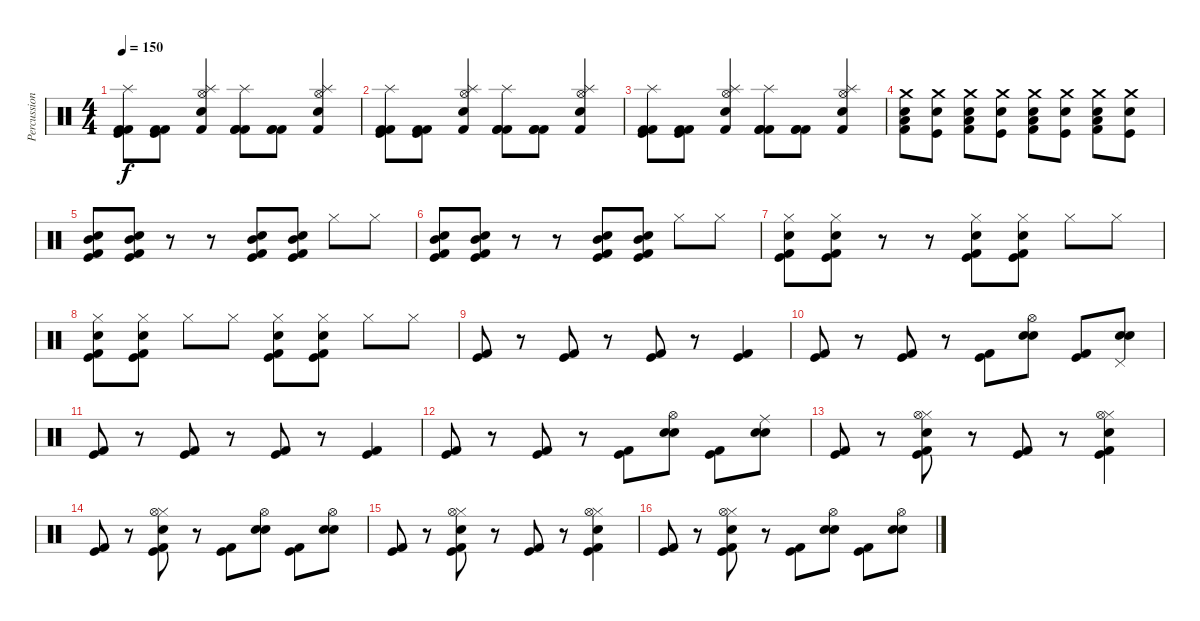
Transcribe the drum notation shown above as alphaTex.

\track ("Percussion" "Percussion") {instrument percussion}
\staff {score}
\articulation defaults
\ts (4 4)
\tempo 150
\clef neutral
\ks c
("Kick (hit) 2" "Kick (hit)" "Kick (hit) 2" "Splash (hit)").8{dy f} ("Kick (hit) 2" "Kick (hit)" "Kick (hit) 2").8 ("Hi-Hat (open)" "Snare (hit) 2" "Kick (hit) 2" "Splash (hit)").4 ("Kick (hit) 2" "Kick (hit) 2" "Kick (hit) 2" "Splash (hit)").8 ("Kick (hit) 2" "Kick (hit) 2" "Kick (hit) 2").8 ("Hi-Hat (open)" "Snare (hit) 2" "Kick (hit) 2" "Splash (hit)").4 |
("Kick (hit) 2" "Kick (hit)" "Kick (hit) 2" "Splash (hit)").8 ("Kick (hit) 2" "Kick (hit)" "Kick (hit) 2").8 ("Hi-Hat (open)" "Snare (hit) 2" "Kick (hit) 2" "Splash (hit)").4 ("Kick (hit) 2" "Kick (hit) 2" "Kick (hit) 2" "Splash (hit)").8 ("Kick (hit) 2" "Kick (hit) 2" "Kick (hit) 2").8 ("Hi-Hat (open)" "Snare (hit) 2" "Kick (hit) 2" "Splash (hit)").4 |
("Kick (hit) 2" "Kick (hit)" "Kick (hit) 2" "Splash (hit)").8 ("Kick (hit) 2" "Kick (hit)" "Kick (hit) 2").8 ("Hi-Hat (open)" "Snare (hit) 2" "Kick (hit) 2" "Splash (hit)").4 ("Kick (hit) 2" "Kick (hit) 2" "Kick (hit) 2" "Splash (hit)").8 ("Kick (hit) 2" "Kick (hit) 2" "Kick (hit) 2").8 ("Hi-Hat (open)" "Snare (hit) 2" "Kick (hit) 2" "Splash (hit)").4 |
("Snare (hit) 2" "Low Tom (hit)" "Crash medium (hit)" "Kick (hit) 2").8 ("Snare (hit) 2" "Crash medium (hit)" "Kick (hit)").8 ("Snare (hit) 2" "Low Tom (hit)" "Crash medium (hit)" "Kick (hit) 2").8 ("Snare (hit) 2" "Crash medium (hit)" "Kick (hit)").8 ("Snare (hit) 2" "Low Tom (hit)" "Crash medium (hit)" "Kick (hit) 2").8 ("Snare (hit) 2" "Crash medium (hit)" "Kick (hit)").8 ("Snare (hit) 2" "Low Tom (hit)" "Crash medium (hit)" "Kick (hit) 2").8 ("Snare (hit) 2" "Crash medium (hit)" "Kick (hit)").8 |
("Snare (hit) 2" "Mid Tom (hit)" "Kick (hit)" "Kick (hit) 2").8 ("Snare (hit) 2" "Mid Tom (hit)" "Kick (hit)" "Kick (hit) 2").8 r.8 r.8 ("Snare (hit) 2" "Mid Tom (hit)" "Kick (hit)" "Kick (hit) 2").8 ("Snare (hit) 2" "Mid Tom (hit)" "Kick (hit)" "Kick (hit) 2").8 "Hi-Hat (closed)".8 "Hi-Hat (closed)".8 |
("Snare (hit) 2" "Mid Tom (hit)" "Kick (hit)" "Kick (hit) 2").8 ("Snare (hit) 2" "Mid Tom (hit)" "Kick (hit)" "Kick (hit) 2").8 r.8 r.8 ("Snare (hit) 2" "Mid Tom (hit)" "Kick (hit)" "Kick (hit) 2").8 ("Snare (hit) 2" "Mid Tom (hit)" "Kick (hit)" "Kick (hit) 2").8 "Hi-Hat (closed)".8 "Hi-Hat (closed)".8 |
("Snare (hit) 2" "Hi-Hat (closed)" "Kick (hit)" "Kick (hit) 2").8 ("Snare (hit) 2" "Hi-Hat (closed)" "Kick (hit)" "Kick (hit) 2").8 r.8 r.8 ("Snare (hit) 2" "Hi-Hat (closed)" "Kick (hit)" "Kick (hit) 2").8 ("Snare (hit) 2" "Hi-Hat (closed)" "Kick (hit)" "Kick (hit) 2").8 "Hi-Hat (closed)".8 "Hi-Hat (closed)".8 |
("Snare (hit) 2" "Hi-Hat (closed)" "Kick (hit)" "Kick (hit) 2").8 ("Snare (hit) 2" "Hi-Hat (closed)" "Kick (hit)" "Kick (hit) 2").8 "Hi-Hat (closed)".8 "Hi-Hat (closed)".8 ("Snare (hit) 2" "Hi-Hat (closed)" "Kick (hit)" "Kick (hit) 2").8 ("Snare (hit) 2" "Hi-Hat (closed)" "Kick (hit)" "Kick (hit) 2").8 "Hi-Hat (closed)".8 "Hi-Hat (closed)".8 |
("Kick (hit)" "Kick (hit) 2").8 r.8 ("Kick (hit)" "Kick (hit) 2").8 r.8 ("Kick (hit)" "Kick (hit) 2").8 r.8 ("Kick (hit)" "Kick (hit) 2").4 |
("Kick (hit)" "Kick (hit) 2").8 r.8 ("Kick (hit)" "Kick (hit) 2").8 r.8 ("Kick (hit)" "Kick (hit) 2").8 ("Snare (hit) 2" "Electric Snare (hit)" "Hi-Hat (open)").8 ("Kick (hit)" "Kick (hit) 2").8 ("Electric Snare (hit)" "Snare (hit) 2" "Pedal Hi-Hat (hit)").8 |
("Kick (hit)" "Kick (hit) 2").8 r.8 ("Kick (hit)" "Kick (hit) 2").8 r.8 ("Kick (hit)" "Kick (hit) 2").8 r.8 ("Kick (hit)" "Kick (hit) 2").4 |
("Kick (hit)" "Kick (hit) 2").8 r.8 ("Kick (hit)" "Kick (hit) 2").8 r.8 ("Kick (hit)" "Kick (hit) 2").8 ("Snare (hit) 2" "Electric Snare (hit)" "Hi-Hat (open)").8 ("Kick (hit)" "Kick (hit) 2").8 ("Snare (hit) 2" "Electric Snare (hit)" "Ride (middle)").8 |
("Kick (hit)" "Kick (hit) 2").8 r.8 ("Snare (hit) 2" "Kick (hit)" "Kick (hit) 2" "Hi-Hat (closed)" "Hi-Hat (open)").8 r.8 ("Kick (hit)" "Kick (hit) 2").8 r.8 ("Snare (hit) 2" "Kick (hit)" "Kick (hit) 2" "Hi-Hat (closed)" "Hi-Hat (open)").4 |
("Kick (hit)" "Kick (hit) 2").8 r.8 ("Snare (hit) 2" "Kick (hit)" "Kick (hit) 2" "Hi-Hat (closed)" "Hi-Hat (open)").8 r.8 ("Kick (hit)" "Kick (hit) 2").8 ("Snare (hit) 2" "Electric Snare (hit)" "Hi-Hat (open)").8 ("Kick (hit)" "Kick (hit) 2").8 ("Snare (hit) 2" "Electric Snare (hit)" "Hi-Hat (open)").8 |
("Kick (hit)" "Kick (hit) 2").8 r.8 ("Snare (hit) 2" "Kick (hit)" "Kick (hit) 2" "Hi-Hat (closed)" "Hi-Hat (open)").8 r.8 ("Kick (hit)" "Kick (hit) 2").8 r.8 ("Snare (hit) 2" "Kick (hit)" "Kick (hit) 2" "Hi-Hat (closed)" "Hi-Hat (open)").4 |
("Kick (hit)" "Kick (hit) 2").8 r.8 ("Snare (hit) 2" "Kick (hit)" "Kick (hit) 2" "Hi-Hat (closed)" "Hi-Hat (open)").8 r.8 ("Kick (hit)" "Kick (hit) 2").8 ("Snare (hit) 2" "Electric Snare (hit)" "Hi-Hat (open)").8 ("Kick (hit)" "Kick (hit) 2").8 ("Snare (hit) 2" "Electric Snare (hit)" "Hi-Hat (open)").8
